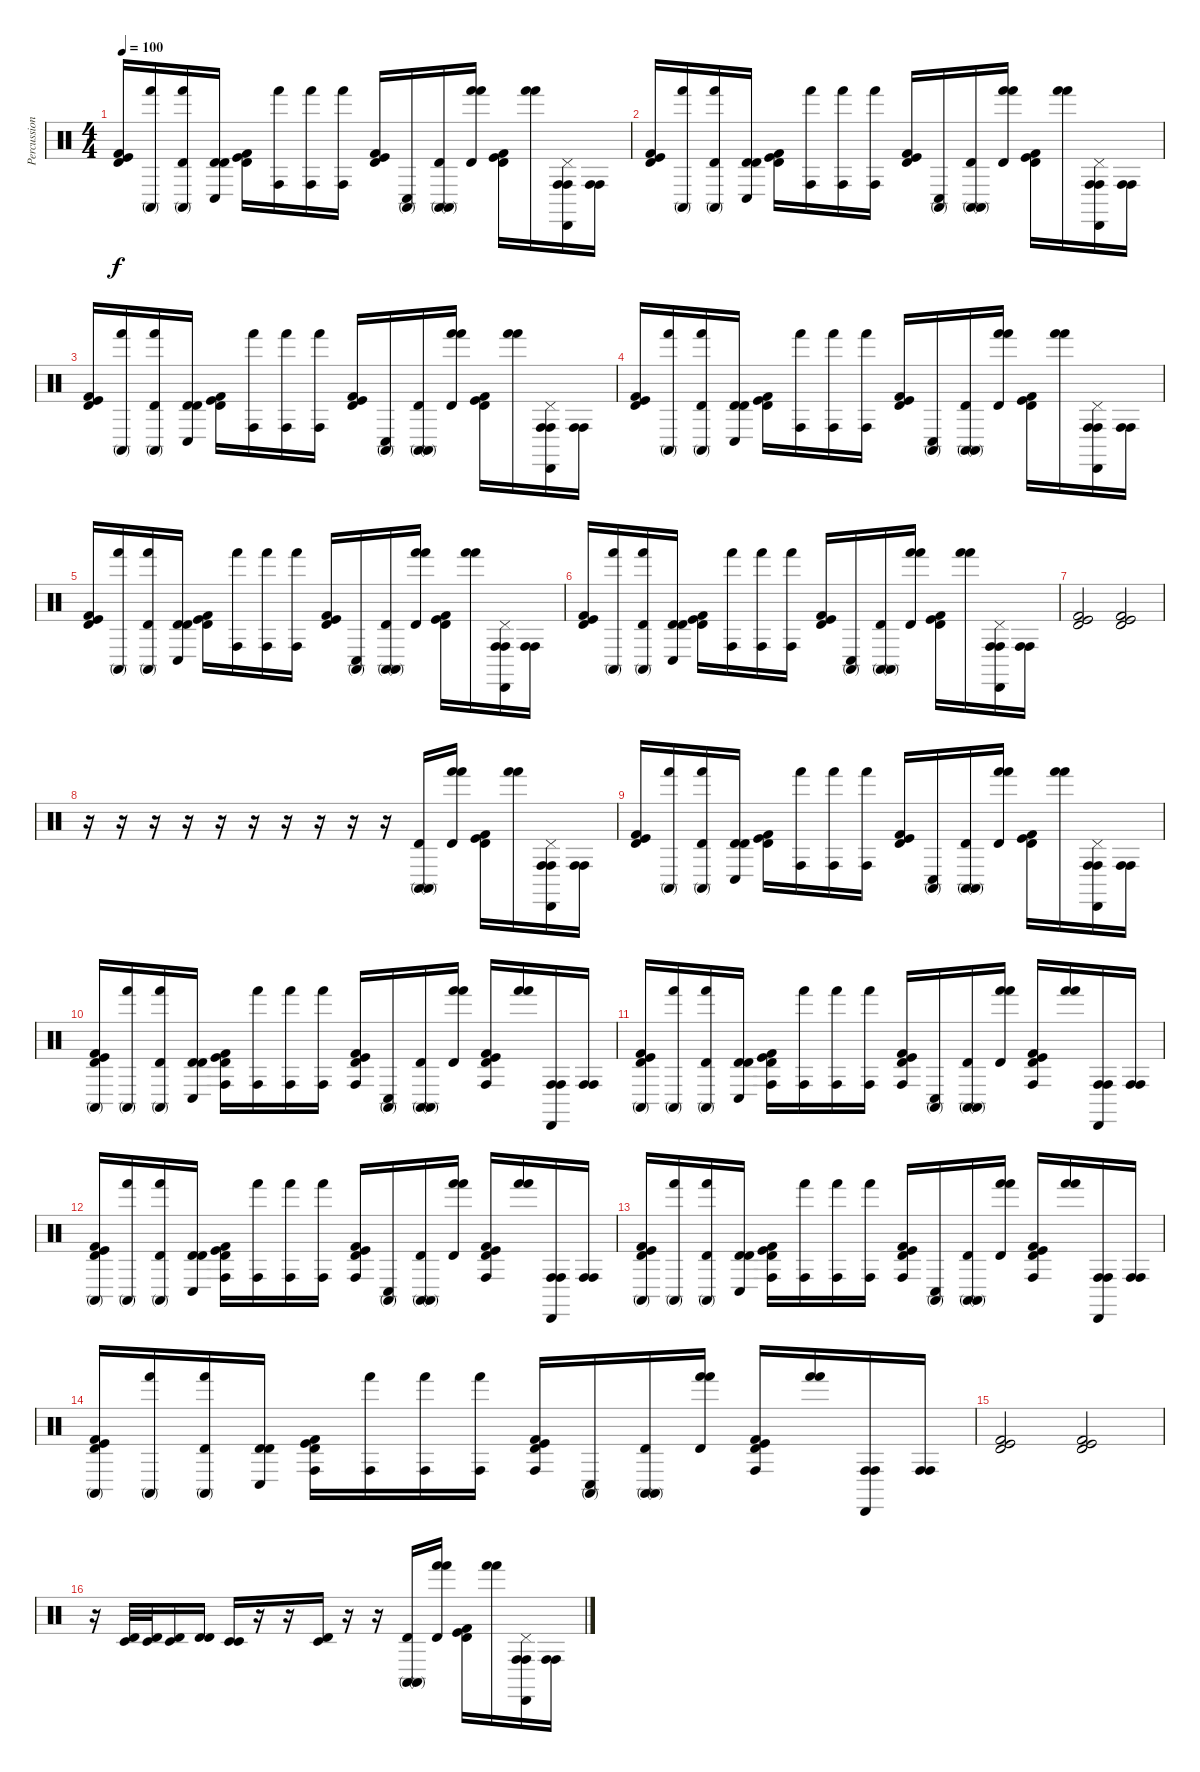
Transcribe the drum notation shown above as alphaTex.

\track ("Percussion" "Percussion") {instrument percussion}
\staff {score}
\articulation defaults
\ts (4 4)
\tempo 100
\clef neutral
\ks c
("Timbale high (hit)" "Kick (hit) 2" "Kick (hit)").16{dy f} ("Conga high (mute)" "Hand (hit)").16 ("Conga high (mute)" "Hand (hit)" "Timbale high (hit)").16 ("Conga low (hit)" "Timbale high (hit)" "Timbale high (hit)").16 ("Timbale high (hit)" "Kick (hit) 2" "Kick (hit)").16 ("Conga high (hit)" "Hand (hit)").16 ("Conga high (hit)" "Hand (hit)").16 ("Conga high (hit)" "Hand (hit)").16 ("Timbale high (hit)" "Kick (hit) 2" "Kick (hit)").16 ("Conga high (mute)" "Conga low (hit)").16 ("Conga high (mute)" "Conga high (mute)" "Timbale high (hit)").16 ("Hand (hit)" "Hand (hit)" "Timbale high (hit)").16 ("Timbale high (hit)" "Kick (hit) 2" "Kick (hit)").16 ("Hand (hit)" "Hand (hit)").16 ("Conga high (hit)" "Conga high (hit)" "Cabasa (hit)" "Pedal Hi-Hat (hit)").16 ("Conga high (hit)" "Conga high (hit)").16 |
("Timbale high (hit)" "Kick (hit) 2" "Kick (hit)").16 ("Conga high (mute)" "Hand (hit)").16 ("Conga high (mute)" "Hand (hit)" "Timbale high (hit)").16 ("Conga low (hit)" "Timbale high (hit)" "Timbale high (hit)").16 ("Timbale high (hit)" "Kick (hit) 2" "Kick (hit)").16 ("Conga high (hit)" "Hand (hit)").16 ("Conga high (hit)" "Hand (hit)").16 ("Conga high (hit)" "Hand (hit)").16 ("Timbale high (hit)" "Kick (hit) 2" "Kick (hit)").16 ("Conga high (mute)" "Conga low (hit)").16 ("Conga high (mute)" "Conga high (mute)" "Timbale high (hit)").16 ("Hand (hit)" "Hand (hit)" "Timbale high (hit)").16 ("Timbale high (hit)" "Kick (hit) 2" "Kick (hit)").16 ("Hand (hit)" "Hand (hit)").16 ("Conga high (hit)" "Conga high (hit)" "Cabasa (hit)" "Pedal Hi-Hat (hit)").16 ("Conga high (hit)" "Conga high (hit)").16 |
("Timbale high (hit)" "Kick (hit) 2" "Kick (hit)").16 ("Conga high (mute)" "Hand (hit)").16 ("Conga high (mute)" "Hand (hit)" "Timbale high (hit)").16 ("Conga low (hit)" "Timbale high (hit)" "Timbale high (hit)").16 ("Timbale high (hit)" "Kick (hit) 2" "Kick (hit)").16 ("Conga high (hit)" "Hand (hit)").16 ("Conga high (hit)" "Hand (hit)").16 ("Conga high (hit)" "Hand (hit)").16 ("Timbale high (hit)" "Kick (hit) 2" "Kick (hit)").16 ("Conga high (mute)" "Conga low (hit)").16 ("Conga high (mute)" "Conga high (mute)" "Timbale high (hit)").16 ("Hand (hit)" "Hand (hit)" "Timbale high (hit)").16 ("Timbale high (hit)" "Kick (hit) 2" "Kick (hit)").16 ("Hand (hit)" "Hand (hit)").16 ("Conga high (hit)" "Conga high (hit)" "Cabasa (hit)" "Pedal Hi-Hat (hit)").16 ("Conga high (hit)" "Conga high (hit)").16 |
("Timbale high (hit)" "Kick (hit) 2" "Kick (hit)").16 ("Conga high (mute)" "Hand (hit)").16 ("Conga high (mute)" "Hand (hit)" "Timbale high (hit)").16 ("Conga low (hit)" "Timbale high (hit)" "Timbale high (hit)").16 ("Timbale high (hit)" "Kick (hit) 2" "Kick (hit)").16 ("Conga high (hit)" "Hand (hit)").16 ("Conga high (hit)" "Hand (hit)").16 ("Conga high (hit)" "Hand (hit)").16 ("Timbale high (hit)" "Kick (hit) 2" "Kick (hit)").16 ("Conga high (mute)" "Conga low (hit)").16 ("Conga high (mute)" "Conga high (mute)" "Timbale high (hit)").16 ("Hand (hit)" "Hand (hit)" "Timbale high (hit)").16 ("Timbale high (hit)" "Kick (hit) 2" "Kick (hit)").16 ("Hand (hit)" "Hand (hit)").16 ("Conga high (hit)" "Conga high (hit)" "Cabasa (hit)" "Pedal Hi-Hat (hit)").16 ("Conga high (hit)" "Conga high (hit)").16 |
("Timbale high (hit)" "Kick (hit) 2" "Kick (hit)").16 ("Conga high (mute)" "Hand (hit)").16 ("Conga high (mute)" "Hand (hit)" "Timbale high (hit)").16 ("Conga low (hit)" "Timbale high (hit)" "Timbale high (hit)").16 ("Timbale high (hit)" "Kick (hit) 2" "Kick (hit)").16 ("Conga high (hit)" "Hand (hit)").16 ("Conga high (hit)" "Hand (hit)").16 ("Conga high (hit)" "Hand (hit)").16 ("Timbale high (hit)" "Kick (hit) 2" "Kick (hit)").16 ("Conga high (mute)" "Conga low (hit)").16 ("Conga high (mute)" "Conga high (mute)" "Timbale high (hit)").16 ("Hand (hit)" "Hand (hit)" "Timbale high (hit)").16 ("Timbale high (hit)" "Kick (hit) 2" "Kick (hit)").16 ("Hand (hit)" "Hand (hit)").16 ("Conga high (hit)" "Conga high (hit)" "Cabasa (hit)" "Pedal Hi-Hat (hit)").16 ("Conga high (hit)" "Conga high (hit)").16 |
("Timbale high (hit)" "Kick (hit) 2" "Kick (hit)").16 ("Conga high (mute)" "Hand (hit)").16 ("Conga high (mute)" "Hand (hit)" "Timbale high (hit)").16 ("Conga low (hit)" "Timbale high (hit)" "Timbale high (hit)").16 ("Timbale high (hit)" "Kick (hit) 2" "Kick (hit)").16 ("Conga high (hit)" "Hand (hit)").16 ("Conga high (hit)" "Hand (hit)").16 ("Conga high (hit)" "Hand (hit)").16 ("Timbale high (hit)" "Kick (hit) 2" "Kick (hit)").16 ("Conga high (mute)" "Conga low (hit)").16 ("Conga high (mute)" "Conga high (mute)" "Timbale high (hit)").16 ("Hand (hit)" "Hand (hit)" "Timbale high (hit)").16 ("Timbale high (hit)" "Kick (hit) 2" "Kick (hit)").16 ("Hand (hit)" "Hand (hit)").16 ("Conga high (hit)" "Conga high (hit)" "Cabasa (hit)" "Pedal Hi-Hat (hit)").16 ("Conga high (hit)" "Conga high (hit)").16 |
("Timbale high (hit)" "Kick (hit) 2" "Kick (hit)").2 ("Timbale high (hit)" "Kick (hit) 2" "Kick (hit)").2 |
r.16 r.16 r.16 r.16 r.16 r.16 r.16 r.16 r.16 r.16 ("Conga high (mute)" "Conga high (mute)" "Timbale high (hit)").16 ("Hand (hit)" "Hand (hit)" "Timbale high (hit)").16 ("Timbale high (hit)" "Kick (hit) 2" "Kick (hit)").16 ("Hand (hit)" "Hand (hit)").16 ("Conga high (hit)" "Conga high (hit)" "Cabasa (hit)" "Pedal Hi-Hat (hit)").16 ("Conga high (hit)" "Conga high (hit)").16 |
("Timbale high (hit)" "Kick (hit) 2" "Kick (hit)").16 ("Conga high (mute)" "Hand (hit)").16 ("Conga high (mute)" "Hand (hit)" "Timbale high (hit)").16 ("Conga low (hit)" "Timbale high (hit)" "Timbale high (hit)").16 ("Timbale high (hit)" "Kick (hit) 2" "Kick (hit)").16 ("Conga high (hit)" "Hand (hit)").16 ("Conga high (hit)" "Hand (hit)").16 ("Conga high (hit)" "Hand (hit)").16 ("Timbale high (hit)" "Kick (hit) 2" "Kick (hit)").16 ("Conga high (mute)" "Conga low (hit)").16 ("Conga high (mute)" "Conga high (mute)" "Timbale high (hit)").16 ("Hand (hit)" "Hand (hit)" "Timbale high (hit)").16 ("Timbale high (hit)" "Kick (hit) 2" "Kick (hit)").16 ("Hand (hit)" "Hand (hit)").16 ("Conga high (hit)" "Conga high (hit)" "Cabasa (hit)" "Pedal Hi-Hat (hit)").16 ("Conga high (hit)" "Conga high (hit)").16 |
("Conga high (mute)" "Timbale high (hit)" "Kick (hit) 2" "Kick (hit)").16 ("Conga high (mute)" "Hand (hit)").16 ("Conga high (mute)" "Hand (hit)" "Timbale high (hit)").16 ("Conga low (hit)" "Timbale high (hit)" "Timbale high (hit)").16 ("Conga high (hit)" "Timbale high (hit)" "Kick (hit) 2" "Kick (hit)").16 ("Conga high (hit)" "Hand (hit)").16 ("Conga high (hit)" "Hand (hit)").16 ("Conga high (hit)" "Hand (hit)").16 ("Conga high (hit)" "Timbale high (hit)" "Kick (hit) 2" "Kick (hit)").16 ("Conga high (mute)" "Conga low (hit)").16 ("Conga high (mute)" "Conga high (mute)" "Timbale high (hit)").16 ("Hand (hit)" "Hand (hit)" "Timbale high (hit)").16 ("Conga high (hit)" "Timbale high (hit)" "Kick (hit) 2" "Kick (hit)").16 ("Hand (hit)" "Hand (hit)").16 ("Conga high (hit)" "Conga high (hit)" "Cabasa (hit)").16 ("Conga high (hit)" "Conga high (hit)").16 |
("Conga high (mute)" "Timbale high (hit)" "Kick (hit) 2" "Kick (hit)").16 ("Conga high (mute)" "Hand (hit)").16 ("Conga high (mute)" "Hand (hit)" "Timbale high (hit)").16 ("Conga low (hit)" "Timbale high (hit)" "Timbale high (hit)").16 ("Conga high (hit)" "Timbale high (hit)" "Kick (hit) 2" "Kick (hit)").16 ("Conga high (hit)" "Hand (hit)").16 ("Conga high (hit)" "Hand (hit)").16 ("Conga high (hit)" "Hand (hit)").16 ("Conga high (hit)" "Timbale high (hit)" "Kick (hit) 2" "Kick (hit)").16 ("Conga high (mute)" "Conga low (hit)").16 ("Conga high (mute)" "Conga high (mute)" "Timbale high (hit)").16 ("Hand (hit)" "Hand (hit)" "Timbale high (hit)").16 ("Conga high (hit)" "Timbale high (hit)" "Kick (hit) 2" "Kick (hit)").16 ("Hand (hit)" "Hand (hit)").16 ("Conga high (hit)" "Conga high (hit)" "Cabasa (hit)").16 ("Conga high (hit)" "Conga high (hit)").16 |
("Conga high (mute)" "Timbale high (hit)" "Kick (hit) 2" "Kick (hit)").16 ("Conga high (mute)" "Hand (hit)").16 ("Conga high (mute)" "Hand (hit)" "Timbale high (hit)").16 ("Conga low (hit)" "Timbale high (hit)" "Timbale high (hit)").16 ("Conga high (hit)" "Timbale high (hit)" "Kick (hit) 2" "Kick (hit)").16 ("Conga high (hit)" "Hand (hit)").16 ("Conga high (hit)" "Hand (hit)").16 ("Conga high (hit)" "Hand (hit)").16 ("Conga high (hit)" "Timbale high (hit)" "Kick (hit) 2" "Kick (hit)").16 ("Conga high (mute)" "Conga low (hit)").16 ("Conga high (mute)" "Conga high (mute)" "Timbale high (hit)").16 ("Hand (hit)" "Hand (hit)" "Timbale high (hit)").16 ("Conga high (hit)" "Timbale high (hit)" "Kick (hit) 2" "Kick (hit)").16 ("Hand (hit)" "Hand (hit)").16 ("Conga high (hit)" "Conga high (hit)" "Cabasa (hit)").16 ("Conga high (hit)" "Conga high (hit)").16 |
("Conga high (mute)" "Timbale high (hit)" "Kick (hit) 2" "Kick (hit)").16 ("Conga high (mute)" "Hand (hit)").16 ("Conga high (mute)" "Hand (hit)" "Timbale high (hit)").16 ("Conga low (hit)" "Timbale high (hit)" "Timbale high (hit)").16 ("Conga high (hit)" "Timbale high (hit)" "Kick (hit) 2" "Kick (hit)").16 ("Conga high (hit)" "Hand (hit)").16 ("Conga high (hit)" "Hand (hit)").16 ("Conga high (hit)" "Hand (hit)").16 ("Conga high (hit)" "Timbale high (hit)" "Kick (hit) 2" "Kick (hit)").16 ("Conga high (mute)" "Conga low (hit)").16 ("Conga high (mute)" "Conga high (mute)" "Timbale high (hit)").16 ("Hand (hit)" "Hand (hit)" "Timbale high (hit)").16 ("Conga high (hit)" "Timbale high (hit)" "Kick (hit) 2" "Kick (hit)").16 ("Hand (hit)" "Hand (hit)").16 ("Conga high (hit)" "Conga high (hit)" "Cabasa (hit)").16 ("Conga high (hit)" "Conga high (hit)").16 |
("Conga high (mute)" "Timbale high (hit)" "Kick (hit) 2" "Kick (hit)").16 ("Conga high (mute)" "Hand (hit)").16 ("Conga high (mute)" "Hand (hit)" "Timbale high (hit)").16 ("Conga low (hit)" "Timbale high (hit)" "Timbale high (hit)").16 ("Conga high (hit)" "Timbale high (hit)" "Kick (hit) 2" "Kick (hit)").16 ("Conga high (hit)" "Hand (hit)").16 ("Conga high (hit)" "Hand (hit)").16 ("Conga high (hit)" "Hand (hit)").16 ("Conga high (hit)" "Timbale high (hit)" "Kick (hit) 2" "Kick (hit)").16 ("Conga high (mute)" "Conga low (hit)").16 ("Conga high (mute)" "Conga high (mute)" "Timbale high (hit)").16 ("Hand (hit)" "Hand (hit)" "Timbale high (hit)").16 ("Conga high (hit)" "Timbale high (hit)" "Kick (hit) 2" "Kick (hit)").16 ("Hand (hit)" "Hand (hit)").16 ("Conga high (hit)" "Conga high (hit)" "Cabasa (hit)").16 ("Conga high (hit)" "Conga high (hit)").16 |
("Timbale high (hit)" "Kick (hit) 2" "Kick (hit)").2 ("Timbale high (hit)" "Kick (hit) 2" "Kick (hit)").2 |
r.16 ("Timbale high (hit)" "Timbale low (hit)").32 ("Timbale high (hit)" "Timbale low (hit)").32 ("Timbale high (hit)" "Timbale low (hit)").16 ("Timbale high (hit)" "Timbale high (hit)").16 ("Timbale low (hit)" "Timbale low (hit)").16 r.16 r.16 ("Timbale high (hit)" "Timbale low (hit)").16 r.16 r.16 ("Conga high (mute)" "Conga high (mute)" "Timbale high (hit)").16 ("Hand (hit)" "Hand (hit)" "Timbale high (hit)").16 ("Timbale high (hit)" "Kick (hit) 2" "Kick (hit)").16 ("Hand (hit)" "Hand (hit)").16 ("Conga high (hit)" "Conga high (hit)" "Cabasa (hit)" "Pedal Hi-Hat (hit)").16 ("Conga high (hit)" "Conga high (hit)").16
